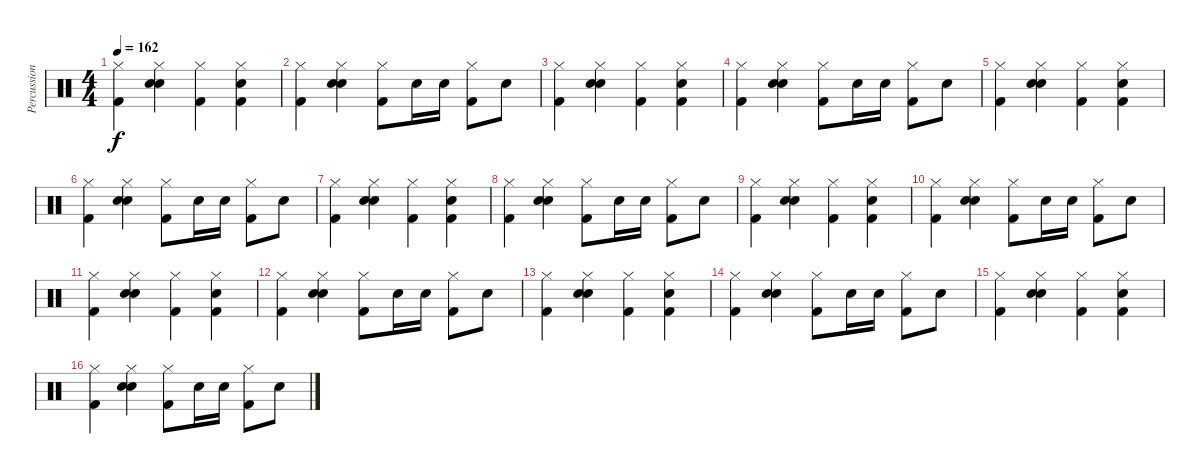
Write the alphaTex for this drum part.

\track ("Percussions" "Percussion") {instrument percussion}
\staff {score}
\articulation defaults
\ts (4 4)
\tempo 162
\clef neutral
\ks c
("Hi-Hat (closed)" "Kick (hit) 2").4{dy f} ("Hi-Hat (closed)" "Electric Snare (hit)" "Snare (hit) 2").4 ("Hi-Hat (closed)" "Kick (hit) 2").4 ("Hi-Hat (closed)" "Kick (hit) 2" "Electric Snare (hit)").4 |
("Hi-Hat (closed)" "Kick (hit) 2").4 ("Hi-Hat (closed)" "Electric Snare (hit)" "Snare (hit) 2").4 ("Hi-Hat (closed)" "Kick (hit) 2").8 "Electric Snare (hit)".16 "Electric Snare (hit)".16 ("Hi-Hat (closed)" "Kick (hit) 2").8 "Electric Snare (hit)".8 |
("Hi-Hat (closed)" "Kick (hit) 2").4 ("Hi-Hat (closed)" "Electric Snare (hit)" "Snare (hit) 2").4 ("Hi-Hat (closed)" "Kick (hit) 2").4 ("Hi-Hat (closed)" "Kick (hit) 2" "Electric Snare (hit)").4 |
("Hi-Hat (closed)" "Kick (hit) 2").4 ("Hi-Hat (closed)" "Electric Snare (hit)" "Snare (hit) 2").4 ("Hi-Hat (closed)" "Kick (hit) 2").8 "Electric Snare (hit)".16 "Electric Snare (hit)".16 ("Hi-Hat (closed)" "Kick (hit) 2").8 "Electric Snare (hit)".8 |
("Hi-Hat (closed)" "Kick (hit) 2").4 ("Hi-Hat (closed)" "Electric Snare (hit)" "Snare (hit) 2").4 ("Hi-Hat (closed)" "Kick (hit) 2").4 ("Hi-Hat (closed)" "Kick (hit) 2" "Electric Snare (hit)").4 |
("Hi-Hat (closed)" "Kick (hit) 2").4 ("Hi-Hat (closed)" "Electric Snare (hit)" "Snare (hit) 2").4 ("Hi-Hat (closed)" "Kick (hit) 2").8 "Electric Snare (hit)".16 "Electric Snare (hit)".16 ("Hi-Hat (closed)" "Kick (hit) 2").8 "Electric Snare (hit)".8 |
("Hi-Hat (closed)" "Kick (hit) 2").4 ("Hi-Hat (closed)" "Electric Snare (hit)" "Snare (hit) 2").4 ("Hi-Hat (closed)" "Kick (hit) 2").4 ("Hi-Hat (closed)" "Kick (hit) 2" "Electric Snare (hit)").4 |
("Hi-Hat (closed)" "Kick (hit) 2").4 ("Hi-Hat (closed)" "Electric Snare (hit)" "Snare (hit) 2").4 ("Hi-Hat (closed)" "Kick (hit) 2").8 "Electric Snare (hit)".16 "Electric Snare (hit)".16 ("Hi-Hat (closed)" "Kick (hit) 2").8 "Electric Snare (hit)".8 |
("Hi-Hat (closed)" "Kick (hit) 2").4 ("Hi-Hat (closed)" "Electric Snare (hit)" "Snare (hit) 2").4 ("Hi-Hat (closed)" "Kick (hit) 2").4 ("Hi-Hat (closed)" "Kick (hit) 2" "Electric Snare (hit)").4 |
("Hi-Hat (closed)" "Kick (hit) 2").4 ("Hi-Hat (closed)" "Electric Snare (hit)" "Snare (hit) 2").4 ("Hi-Hat (closed)" "Kick (hit) 2").8 "Electric Snare (hit)".16 "Electric Snare (hit)".16 ("Hi-Hat (closed)" "Kick (hit) 2").8 "Electric Snare (hit)".8 |
("Hi-Hat (closed)" "Kick (hit) 2").4 ("Hi-Hat (closed)" "Electric Snare (hit)" "Snare (hit) 2").4 ("Hi-Hat (closed)" "Kick (hit) 2").4 ("Hi-Hat (closed)" "Kick (hit) 2" "Electric Snare (hit)").4 |
("Hi-Hat (closed)" "Kick (hit) 2").4 ("Hi-Hat (closed)" "Electric Snare (hit)" "Snare (hit) 2").4 ("Hi-Hat (closed)" "Kick (hit) 2").8 "Electric Snare (hit)".16 "Electric Snare (hit)".16 ("Hi-Hat (closed)" "Kick (hit) 2").8 "Electric Snare (hit)".8 |
("Hi-Hat (closed)" "Kick (hit) 2").4 ("Hi-Hat (closed)" "Electric Snare (hit)" "Snare (hit) 2").4 ("Hi-Hat (closed)" "Kick (hit) 2").4 ("Hi-Hat (closed)" "Kick (hit) 2" "Electric Snare (hit)").4 |
("Hi-Hat (closed)" "Kick (hit) 2").4 ("Hi-Hat (closed)" "Electric Snare (hit)" "Snare (hit) 2").4 ("Hi-Hat (closed)" "Kick (hit) 2").8 "Electric Snare (hit)".16 "Electric Snare (hit)".16 ("Hi-Hat (closed)" "Kick (hit) 2").8 "Electric Snare (hit)".8 |
("Hi-Hat (closed)" "Kick (hit) 2").4 ("Hi-Hat (closed)" "Electric Snare (hit)" "Snare (hit) 2").4 ("Hi-Hat (closed)" "Kick (hit) 2").4 ("Hi-Hat (closed)" "Kick (hit) 2" "Electric Snare (hit)").4 |
("Hi-Hat (closed)" "Kick (hit) 2").4 ("Hi-Hat (closed)" "Electric Snare (hit)" "Snare (hit) 2").4 ("Hi-Hat (closed)" "Kick (hit) 2").8 "Electric Snare (hit)".16 "Electric Snare (hit)".16 ("Hi-Hat (closed)" "Kick (hit) 2").8 "Electric Snare (hit)".8
